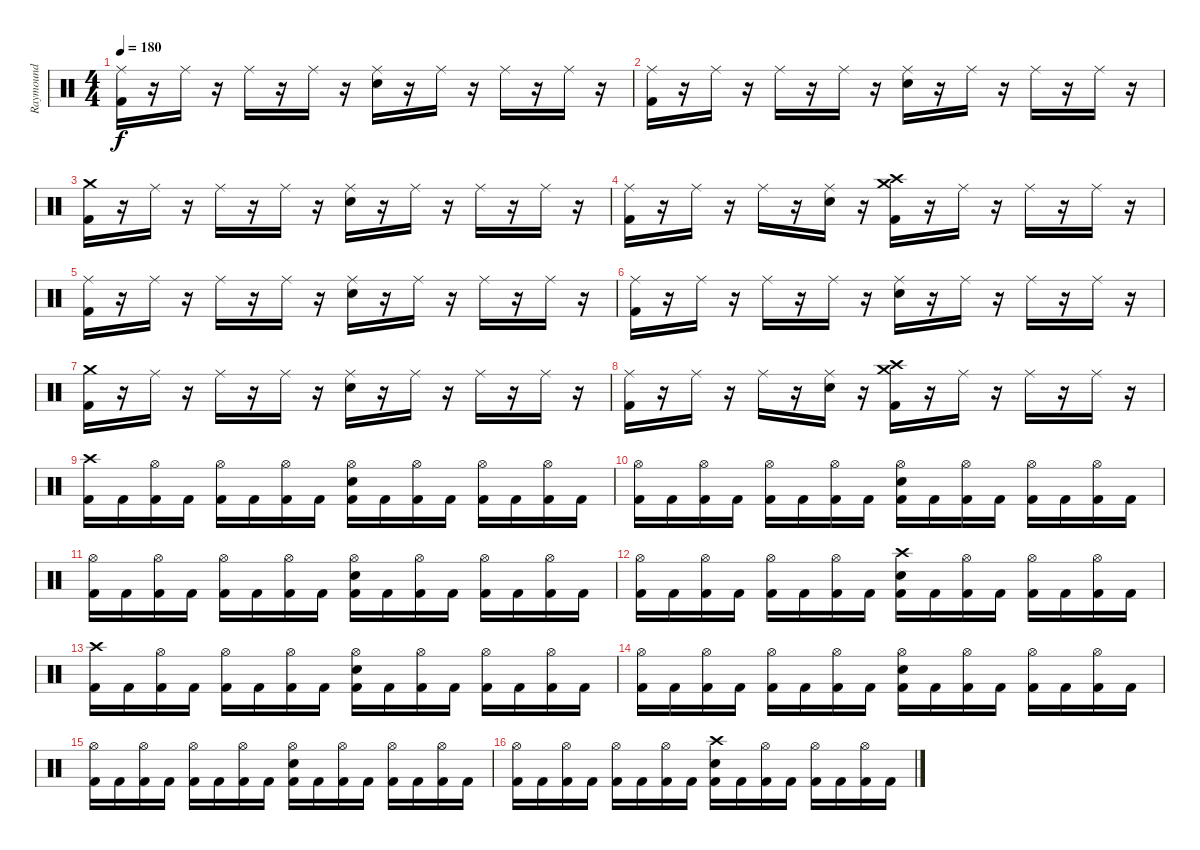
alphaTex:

\track ("Raymound " "Raymound ") {instrument percussion}
\staff {score}
\articulation defaults
\ts (4 4)
\tempo 180
\clef neutral
\ks c
("Ride (middle)" "Kick (hit) 2").16{dy f} r.16 "Ride (middle)".16 r.16 "Ride (middle)".16 r.16 "Ride (middle)".16 r.16 ("Ride (middle)" "Electric Snare (hit)").16 r.16 "Ride (middle)".16 r.16 "Ride (middle)".16 r.16 "Ride (middle)".16 r.16 |
("Ride (middle)" "Kick (hit) 2").16 r.16 "Ride (middle)".16 r.16 "Ride (middle)".16 r.16 "Ride (middle)".16 r.16 ("Ride (middle)" "Electric Snare (hit)").16 r.16 "Ride (middle)".16 r.16 "Ride (middle)".16 r.16 "Ride (middle)".16 r.16 |
("Crash medium (hit)" "Kick (hit) 2").16 r.16 "Ride (middle)".16 r.16 "Ride (middle)".16 r.16 "Ride (middle)".16 r.16 ("Ride (middle)" "Electric Snare (hit)").16 r.16 "Ride (middle)".16 r.16 "Ride (middle)".16 r.16 "Ride (middle)".16 r.16 |
("Ride (middle)" "Kick (hit) 2").16 r.16 "Ride (middle)".16 r.16 "Ride (middle)".16 r.16 ("Ride (middle)" "Electric Snare (hit)").16 r.16 ("Crash high (hit)" "Crash medium (hit)" "Kick (hit) 2").16 r.16 "Ride (middle)".16 r.16 "Ride (middle)".16 r.16 "Ride (middle)".16 r.16 |
("Ride (middle)" "Kick (hit) 2").16 r.16 "Ride (middle)".16 r.16 "Ride (middle)".16 r.16 "Ride (middle)".16 r.16 ("Ride (middle)" "Electric Snare (hit)").16 r.16 "Ride (middle)".16 r.16 "Ride (middle)".16 r.16 "Ride (middle)".16 r.16 |
("Ride (middle)" "Kick (hit) 2").16 r.16 "Ride (middle)".16 r.16 "Ride (middle)".16 r.16 "Ride (middle)".16 r.16 ("Ride (middle)" "Electric Snare (hit)").16 r.16 "Ride (middle)".16 r.16 "Ride (middle)".16 r.16 "Ride (middle)".16 r.16 |
("Crash medium (hit)" "Kick (hit) 2").16 r.16 "Ride (middle)".16 r.16 "Ride (middle)".16 r.16 "Ride (middle)".16 r.16 ("Ride (middle)" "Electric Snare (hit)").16 r.16 "Ride (middle)".16 r.16 "Ride (middle)".16 r.16 "Ride (middle)".16 r.16 |
("Ride (middle)" "Kick (hit) 2").16 r.16 "Ride (middle)".16 r.16 "Ride (middle)".16 r.16 ("Ride (middle)" "Electric Snare (hit)").16 r.16 ("Crash high (hit)" "Crash medium (hit)" "Kick (hit) 2").16 r.16 "Ride (middle)".16 r.16 "Ride (middle)".16 r.16 "Ride (middle)".16 r.16 |
("Crash high (hit)" "Kick (hit) 2").16 "Kick (hit) 2".16 ("Hi-Hat (open)" "Kick (hit) 2").16 "Kick (hit) 2".16 ("Hi-Hat (open)" "Kick (hit) 2").16 "Kick (hit) 2".16 ("Hi-Hat (open)" "Kick (hit) 2").16 "Kick (hit) 2".16 ("Hi-Hat (open)" "Electric Snare (hit)" "Kick (hit) 2").16 "Kick (hit) 2".16 ("Hi-Hat (open)" "Kick (hit) 2").16 "Kick (hit) 2".16 ("Hi-Hat (open)" "Kick (hit) 2").16 "Kick (hit) 2".16 ("Hi-Hat (open)" "Kick (hit) 2").16 "Kick (hit) 2".16 |
("Hi-Hat (open)" "Kick (hit) 2").16 "Kick (hit) 2".16 ("Hi-Hat (open)" "Kick (hit) 2").16 "Kick (hit) 2".16 ("Hi-Hat (open)" "Kick (hit) 2").16 "Kick (hit) 2".16 ("Hi-Hat (open)" "Kick (hit) 2").16 "Kick (hit) 2".16 ("Hi-Hat (open)" "Electric Snare (hit)" "Kick (hit) 2").16 "Kick (hit) 2".16 ("Hi-Hat (open)" "Kick (hit) 2").16 "Kick (hit) 2".16 ("Hi-Hat (open)" "Kick (hit) 2").16 "Kick (hit) 2".16 ("Hi-Hat (open)" "Kick (hit) 2").16 "Kick (hit) 2".16 |
("Hi-Hat (open)" "Kick (hit) 2").16 "Kick (hit) 2".16 ("Hi-Hat (open)" "Kick (hit) 2").16 "Kick (hit) 2".16 ("Hi-Hat (open)" "Kick (hit) 2").16 "Kick (hit) 2".16 ("Hi-Hat (open)" "Kick (hit) 2").16 "Kick (hit) 2".16 ("Hi-Hat (open)" "Electric Snare (hit)" "Kick (hit) 2").16 "Kick (hit) 2".16 ("Hi-Hat (open)" "Kick (hit) 2").16 "Kick (hit) 2".16 ("Hi-Hat (open)" "Kick (hit) 2").16 "Kick (hit) 2".16 ("Hi-Hat (open)" "Kick (hit) 2").16 "Kick (hit) 2".16 |
("Hi-Hat (open)" "Kick (hit) 2").16 "Kick (hit) 2".16 ("Hi-Hat (open)" "Kick (hit) 2").16 "Kick (hit) 2".16 ("Hi-Hat (open)" "Kick (hit) 2").16 "Kick (hit) 2".16 ("Hi-Hat (open)" "Kick (hit) 2").16 "Kick (hit) 2".16 ("Crash high (hit)" "Electric Snare (hit)" "Kick (hit) 2").16 "Kick (hit) 2".16 ("Hi-Hat (open)" "Kick (hit) 2").16 "Kick (hit) 2".16 ("Hi-Hat (open)" "Kick (hit) 2").16 "Kick (hit) 2".16 ("Hi-Hat (open)" "Kick (hit) 2").16 "Kick (hit) 2".16 |
("Crash high (hit)" "Kick (hit) 2").16 "Kick (hit) 2".16 ("Hi-Hat (open)" "Kick (hit) 2").16 "Kick (hit) 2".16 ("Hi-Hat (open)" "Kick (hit) 2").16 "Kick (hit) 2".16 ("Hi-Hat (open)" "Kick (hit) 2").16 "Kick (hit) 2".16 ("Hi-Hat (open)" "Electric Snare (hit)" "Kick (hit) 2").16 "Kick (hit) 2".16 ("Hi-Hat (open)" "Kick (hit) 2").16 "Kick (hit) 2".16 ("Hi-Hat (open)" "Kick (hit) 2").16 "Kick (hit) 2".16 ("Hi-Hat (open)" "Kick (hit) 2").16 "Kick (hit) 2".16 |
("Hi-Hat (open)" "Kick (hit) 2").16 "Kick (hit) 2".16 ("Hi-Hat (open)" "Kick (hit) 2").16 "Kick (hit) 2".16 ("Hi-Hat (open)" "Kick (hit) 2").16 "Kick (hit) 2".16 ("Hi-Hat (open)" "Kick (hit) 2").16 "Kick (hit) 2".16 ("Hi-Hat (open)" "Electric Snare (hit)" "Kick (hit) 2").16 "Kick (hit) 2".16 ("Hi-Hat (open)" "Kick (hit) 2").16 "Kick (hit) 2".16 ("Hi-Hat (open)" "Kick (hit) 2").16 "Kick (hit) 2".16 ("Hi-Hat (open)" "Kick (hit) 2").16 "Kick (hit) 2".16 |
("Hi-Hat (open)" "Kick (hit) 2").16 "Kick (hit) 2".16 ("Hi-Hat (open)" "Kick (hit) 2").16 "Kick (hit) 2".16 ("Hi-Hat (open)" "Kick (hit) 2").16 "Kick (hit) 2".16 ("Hi-Hat (open)" "Kick (hit) 2").16 "Kick (hit) 2".16 ("Hi-Hat (open)" "Electric Snare (hit)" "Kick (hit) 2").16 "Kick (hit) 2".16 ("Hi-Hat (open)" "Kick (hit) 2").16 "Kick (hit) 2".16 ("Hi-Hat (open)" "Kick (hit) 2").16 "Kick (hit) 2".16 ("Hi-Hat (open)" "Kick (hit) 2").16 "Kick (hit) 2".16 |
("Hi-Hat (open)" "Kick (hit) 2").16 "Kick (hit) 2".16 ("Hi-Hat (open)" "Kick (hit) 2").16 "Kick (hit) 2".16 ("Hi-Hat (open)" "Kick (hit) 2").16 "Kick (hit) 2".16 ("Hi-Hat (open)" "Kick (hit) 2").16 "Kick (hit) 2".16 ("Crash high (hit)" "Electric Snare (hit)" "Kick (hit) 2").16 "Kick (hit) 2".16 ("Hi-Hat (open)" "Kick (hit) 2").16 "Kick (hit) 2".16 ("Hi-Hat (open)" "Kick (hit) 2").16 "Kick (hit) 2".16 ("Hi-Hat (open)" "Kick (hit) 2").16 "Kick (hit) 2".16
